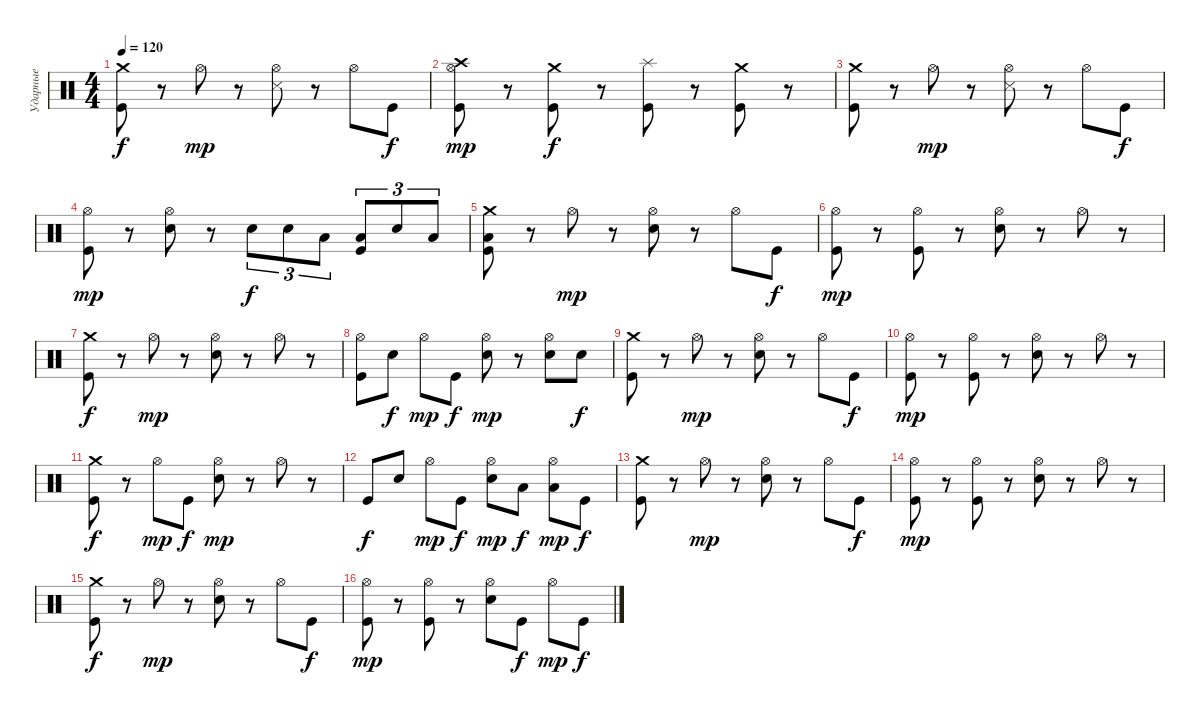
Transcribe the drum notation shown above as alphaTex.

\track ("Ударные" "Ударные") {instrument percussion}
\staff {score}
\articulation defaults
\ts (4 4)
\tempo 120
\clef neutral
\ks c
("Crash medium (hit)" "Kick (hit)").8{dy f} r.8 "Hi-Hat (open)".8{dy mp} r.8 ("Snare (side stick) 3" "Hi-Hat (open)").8 r.8 "Hi-Hat (open)".8 "Kick (hit)".8{dy f} |
("Crash high (hit)" "Kick (hit)" "Hi-Hat (open)").8{dy mp} r.8 ("Crash medium (hit)" "Kick (hit)").8{dy f} r.8 ("Splash (hit)" "Kick (hit)").8 r.8 ("Crash medium (hit)" "Kick (hit)").8 r.8 |
("Crash medium (hit)" "Kick (hit)").8 r.8 "Hi-Hat (open)".8{dy mp} r.8 ("Snare (side stick) 3" "Hi-Hat (open)").8 r.8 "Hi-Hat (open)".8 "Kick (hit)".8{dy f} |
("Kick (hit)" "Hi-Hat (open)").8{dy mp} r.8 ("Snare (hit) 2" "Hi-Hat (open)").8 r.8 "Snare (hit) 2".8{tu (3 2) dy f} "Snare (hit) 2".8{tu (3 2)} "Low Floor Tom (hit)".8{tu (3 2)} ("Kick (hit)" "Low Floor Tom (hit)").8{tu (3 2)} "Snare (hit) 2".8{tu (3 2)} "Low Floor Tom (hit)".8{tu (3 2)} |
("Crash medium (hit)" "Low Floor Tom (hit)" "Kick (hit)").8 r.8 "Hi-Hat (open)".8{dy mp} r.8 ("Snare (hit) 2" "Hi-Hat (open)").8 r.8 "Hi-Hat (open)".8 "Kick (hit)".8{dy f} |
("Kick (hit)" "Hi-Hat (open)").8{dy mp} r.8 ("Kick (hit)" "Hi-Hat (open)").8 r.8 ("Snare (hit) 2" "Hi-Hat (open)").8 r.8 "Hi-Hat (open)".8 r.8 |
("Crash medium (hit)" "Kick (hit)").8{dy f} r.8 "Hi-Hat (open)".8{dy mp} r.8 ("Snare (hit) 2" "Hi-Hat (open)").8 r.8 "Hi-Hat (open)".8 r.8 |
("Kick (hit)" "Hi-Hat (open)").8 "Snare (hit) 2".8{dy f} "Hi-Hat (open)".8{dy mp} "Kick (hit)".8{dy f} ("Snare (hit) 2" "Hi-Hat (open)").8{dy mp} r.8 ("Snare (hit) 2" "Hi-Hat (open)").8 "Snare (hit) 2".8{dy f} |
("Crash medium (hit)" "Kick (hit)").8 r.8 "Hi-Hat (open)".8{dy mp} r.8 ("Snare (hit) 2" "Hi-Hat (open)").8 r.8 "Hi-Hat (open)".8 "Kick (hit)".8{dy f} |
("Kick (hit)" "Hi-Hat (open)").8{dy mp} r.8 ("Kick (hit)" "Hi-Hat (open)").8 r.8 ("Snare (hit) 2" "Hi-Hat (open)").8 r.8 "Hi-Hat (open)".8 r.8 |
("Crash medium (hit)" "Kick (hit)").8{dy f} r.8 "Hi-Hat (open)".8{dy mp} "Kick (hit)".8{dy f} ("Snare (hit) 2" "Hi-Hat (open)").8{dy mp} r.8 "Hi-Hat (open)".8 r.8 |
"Kick (hit)".8{dy f} "Snare (hit) 2".8 "Hi-Hat (open)".8{dy mp} "Kick (hit)".8{dy f} ("Snare (hit) 2" "Hi-Hat (open)").8{dy mp} "Low Floor Tom (hit)".8{dy f} ("Low Floor Tom (hit)" "Hi-Hat (open)").8{dy mp} "Kick (hit)".8{dy f} |
("Crash medium (hit)" "Kick (hit)").8 r.8 "Hi-Hat (open)".8{dy mp} r.8 ("Snare (hit) 2" "Hi-Hat (open)").8 r.8 "Hi-Hat (open)".8 "Kick (hit)".8{dy f} |
("Kick (hit)" "Hi-Hat (open)").8{dy mp} r.8 ("Kick (hit)" "Hi-Hat (open)").8 r.8 ("Snare (hit) 2" "Hi-Hat (open)").8 r.8 "Hi-Hat (open)".8 r.8 |
("Crash medium (hit)" "Kick (hit)").8{dy f} r.8 "Hi-Hat (open)".8{dy mp} r.8 ("Snare (hit) 2" "Hi-Hat (open)").8 r.8 "Hi-Hat (open)".8 "Kick (hit)".8{dy f} |
("Kick (hit)" "Hi-Hat (open)").8{dy mp} r.8 ("Kick (hit)" "Hi-Hat (open)").8 r.8 ("Snare (hit) 2" "Hi-Hat (open)").8 "Kick (hit)".8{dy f} "Hi-Hat (open)".8{dy mp} "Kick (hit)".8{dy f}
